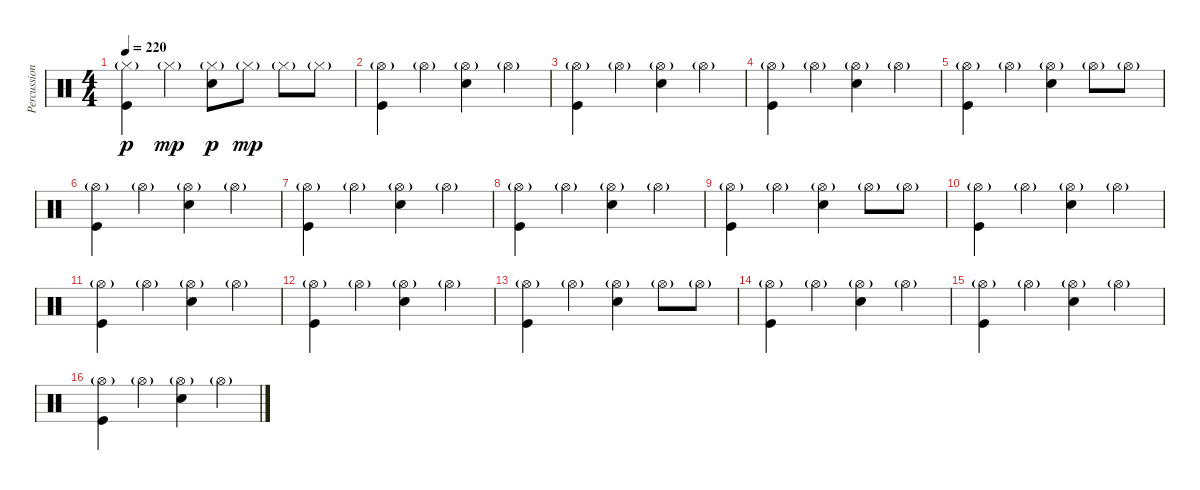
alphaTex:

\track ("Percussion" "Percussion") {instrument percussion}
\staff {score}
\articulation defaults
\ts (4 4)
\tempo 220
\clef neutral
\ks c
("Hi-Hat (closed)"{g} "Kick (hit)").4{dy p} "Hi-Hat (closed)"{g}.4{dy mp} ("Hi-Hat (closed)"{g} "Electric Snare (hit)").8{dy p} "Hi-Hat (closed)"{g}.8{dy mp} "Hi-Hat (closed)"{g}.8 "Hi-Hat (closed)"{g}.8 |
("Hi-Hat (open)"{g} "Kick (hit)").4 "Hi-Hat (open)"{g}.4 ("Hi-Hat (open)"{g} "Electric Snare (hit)").4 "Hi-Hat (open)"{g}.4 |
("Hi-Hat (open)"{g} "Kick (hit)").4 "Hi-Hat (open)"{g}.4 ("Hi-Hat (open)"{g} "Electric Snare (hit)").4 "Hi-Hat (open)"{g}.4 |
("Hi-Hat (open)"{g} "Kick (hit)").4 "Hi-Hat (open)"{g}.4 ("Hi-Hat (open)"{g} "Electric Snare (hit)").4 "Hi-Hat (open)"{g}.4 |
("Hi-Hat (open)"{g} "Kick (hit)").4 "Hi-Hat (open)"{g}.4 ("Hi-Hat (open)"{g} "Electric Snare (hit)").4 "Hi-Hat (open)"{g}.8 "Hi-Hat (open)"{g}.8 |
("Hi-Hat (open)"{g} "Kick (hit)").4 "Hi-Hat (open)"{g}.4 ("Hi-Hat (open)"{g} "Electric Snare (hit)").4 "Hi-Hat (open)"{g}.4 |
("Hi-Hat (open)"{g} "Kick (hit)").4 "Hi-Hat (open)"{g}.4 ("Hi-Hat (open)"{g} "Electric Snare (hit)").4 "Hi-Hat (open)"{g}.4 |
("Hi-Hat (open)"{g} "Kick (hit)").4 "Hi-Hat (open)"{g}.4 ("Hi-Hat (open)"{g} "Electric Snare (hit)").4 "Hi-Hat (open)"{g}.4 |
("Hi-Hat (open)"{g} "Kick (hit)").4 "Hi-Hat (open)"{g}.4 ("Hi-Hat (open)"{g} "Electric Snare (hit)").4 "Hi-Hat (open)"{g}.8 "Hi-Hat (open)"{g}.8 |
("Hi-Hat (open)"{g} "Kick (hit)").4 "Hi-Hat (open)"{g}.4 ("Hi-Hat (open)"{g} "Electric Snare (hit)").4 "Hi-Hat (open)"{g}.4 |
("Hi-Hat (open)"{g} "Kick (hit)").4 "Hi-Hat (open)"{g}.4 ("Hi-Hat (open)"{g} "Electric Snare (hit)").4 "Hi-Hat (open)"{g}.4 |
("Hi-Hat (open)"{g} "Kick (hit)").4 "Hi-Hat (open)"{g}.4 ("Hi-Hat (open)"{g} "Electric Snare (hit)").4 "Hi-Hat (open)"{g}.4 |
("Hi-Hat (open)"{g} "Kick (hit)").4 "Hi-Hat (open)"{g}.4 ("Hi-Hat (open)"{g} "Electric Snare (hit)").4 "Hi-Hat (open)"{g}.8 "Hi-Hat (open)"{g}.8 |
("Hi-Hat (open)"{g} "Kick (hit)").4 "Hi-Hat (open)"{g}.4 ("Hi-Hat (open)"{g} "Electric Snare (hit)").4 "Hi-Hat (open)"{g}.4 |
("Hi-Hat (open)"{g} "Kick (hit)").4 "Hi-Hat (open)"{g}.4 ("Hi-Hat (open)"{g} "Electric Snare (hit)").4 "Hi-Hat (open)"{g}.4 |
("Hi-Hat (open)"{g} "Kick (hit)").4 "Hi-Hat (open)"{g}.4 ("Hi-Hat (open)"{g} "Electric Snare (hit)").4 "Hi-Hat (open)"{g}.4
